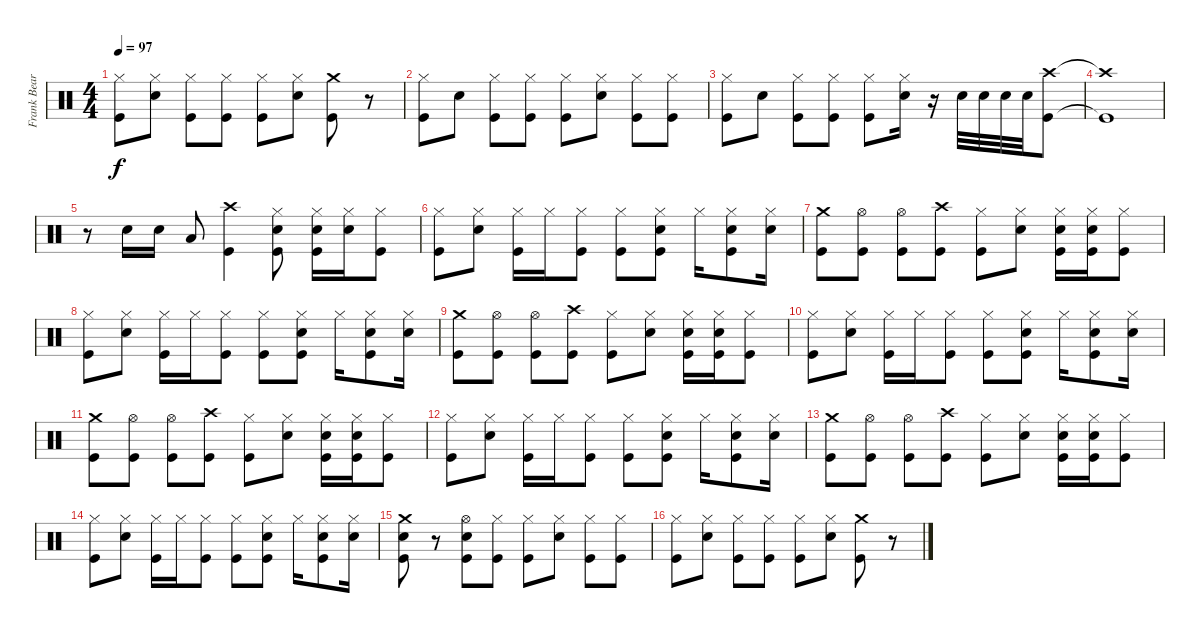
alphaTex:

\track ("Frank Beard Drums" "Frank Bear") {instrument percussion}
\staff {score}
\articulation defaults
\ts (4 4)
\tempo 97
\clef neutral
\ks c
("Hi-Hat (closed)" "Kick (hit)").8{dy f} ("Hi-Hat (closed)" "Snare (hit) 2").8 ("Hi-Hat (closed)" "Kick (hit)").8 ("Hi-Hat (closed)" "Kick (hit)").8 ("Hi-Hat (closed)" "Kick (hit)").8 ("Hi-Hat (closed)" "Snare (hit) 2").8 ("Crash medium (hit)" "Kick (hit)").8 r.8 |
("Hi-Hat (closed)" "Kick (hit)").8 "Snare (hit) 2".8 ("Hi-Hat (closed)" "Kick (hit)").8 ("Hi-Hat (closed)" "Kick (hit)").8 ("Hi-Hat (closed)" "Kick (hit)").8 ("Hi-Hat (closed)" "Snare (hit) 2").8 ("Hi-Hat (closed)" "Kick (hit)").8 ("Hi-Hat (closed)" "Kick (hit)").8 |
("Hi-Hat (closed)" "Kick (hit)").8 "Snare (hit) 2".8 ("Hi-Hat (closed)" "Kick (hit)").8 ("Hi-Hat (closed)" "Kick (hit)").8 ("Hi-Hat (closed)" "Kick (hit)").8 ("Hi-Hat (closed)" "Snare (hit) 2").16 r.16 "Snare (hit) 2".32 "Snare (hit) 2".32 "Snare (hit) 2".32 "Snare (hit) 2".32 ("Crash high (hit)" "Kick (hit)").8 |
("Crash high (hit)"{t} "Kick (hit)"{t}).1 |
r.8 "Snare (hit) 2".16 "Snare (hit) 2".16 "Low Tom (hit)".8 ("Crash high (hit)" "Kick (hit)").4 ("Hi-Hat (closed)" "Snare (hit) 2" "Kick (hit)").8 ("Hi-Hat (closed)" "Snare (hit) 2" "Kick (hit)").16 ("Hi-Hat (closed)" "Snare (hit) 2").16 ("Hi-Hat (closed)" "Kick (hit)").8 |
("Hi-Hat (closed)" "Kick (hit)").8 ("Hi-Hat (closed)" "Snare (hit) 2").8 ("Hi-Hat (closed)" "Kick (hit)").16 "Hi-Hat (closed)".16 ("Hi-Hat (closed)" "Kick (hit)").8 ("Hi-Hat (closed)" "Kick (hit)").8 ("Hi-Hat (closed)" "Snare (hit) 2" "Kick (hit)").8 "Hi-Hat (closed)".16 ("Hi-Hat (closed)" "Snare (hit) 2" "Kick (hit)").8 ("Hi-Hat (closed)" "Snare (hit) 2").16 |
("Crash medium (hit)" "Kick (hit)").8 ("Hi-Hat (open)" "Kick (hit)").8 ("Hi-Hat (open)" "Kick (hit)").8 ("Crash high (hit)" "Kick (hit)").8 ("Hi-Hat (closed)" "Kick (hit)").8 ("Hi-Hat (closed)" "Snare (hit) 2").8 ("Hi-Hat (closed)" "Snare (hit) 2" "Kick (hit)").16 ("Hi-Hat (closed)" "Snare (hit) 2" "Kick (hit)").16 ("Hi-Hat (closed)" "Kick (hit)").8 |
("Hi-Hat (closed)" "Kick (hit)").8 ("Hi-Hat (closed)" "Snare (hit) 2").8 ("Hi-Hat (closed)" "Kick (hit)").16 "Hi-Hat (closed)".16 ("Hi-Hat (closed)" "Kick (hit)").8 ("Hi-Hat (closed)" "Kick (hit)").8 ("Hi-Hat (closed)" "Snare (hit) 2" "Kick (hit)").8 "Hi-Hat (closed)".16 ("Hi-Hat (closed)" "Snare (hit) 2" "Kick (hit)").8 ("Hi-Hat (closed)" "Snare (hit) 2").16 |
("Crash medium (hit)" "Kick (hit)").8 ("Hi-Hat (open)" "Kick (hit)").8 ("Hi-Hat (open)" "Kick (hit)").8 ("Crash high (hit)" "Kick (hit)").8 ("Hi-Hat (closed)" "Kick (hit)").8 ("Hi-Hat (closed)" "Snare (hit) 2").8 ("Hi-Hat (closed)" "Snare (hit) 2" "Kick (hit)").16 ("Hi-Hat (closed)" "Snare (hit) 2" "Kick (hit)").16 ("Hi-Hat (closed)" "Kick (hit)").8 |
("Hi-Hat (closed)" "Kick (hit)").8 ("Hi-Hat (closed)" "Snare (hit) 2").8 ("Hi-Hat (closed)" "Kick (hit)").16 "Hi-Hat (closed)".16 ("Hi-Hat (closed)" "Kick (hit)").8 ("Hi-Hat (closed)" "Kick (hit)").8 ("Hi-Hat (closed)" "Snare (hit) 2" "Kick (hit)").8 "Hi-Hat (closed)".16 ("Hi-Hat (closed)" "Snare (hit) 2" "Kick (hit)").8 ("Hi-Hat (closed)" "Snare (hit) 2").16 |
("Crash medium (hit)" "Kick (hit)").8 ("Hi-Hat (open)" "Kick (hit)").8 ("Hi-Hat (open)" "Kick (hit)").8 ("Crash high (hit)" "Kick (hit)").8 ("Hi-Hat (closed)" "Kick (hit)").8 ("Hi-Hat (closed)" "Snare (hit) 2").8 ("Hi-Hat (closed)" "Snare (hit) 2" "Kick (hit)").16 ("Hi-Hat (closed)" "Snare (hit) 2" "Kick (hit)").16 ("Hi-Hat (closed)" "Kick (hit)").8 |
("Hi-Hat (closed)" "Kick (hit)").8 ("Hi-Hat (closed)" "Snare (hit) 2").8 ("Hi-Hat (closed)" "Kick (hit)").16 "Hi-Hat (closed)".16 ("Hi-Hat (closed)" "Kick (hit)").8 ("Hi-Hat (closed)" "Kick (hit)").8 ("Hi-Hat (closed)" "Snare (hit) 2" "Kick (hit)").8 "Hi-Hat (closed)".16 ("Hi-Hat (closed)" "Snare (hit) 2" "Kick (hit)").8 ("Hi-Hat (closed)" "Snare (hit) 2").16 |
("Crash medium (hit)" "Kick (hit)").8 ("Hi-Hat (open)" "Kick (hit)").8 ("Hi-Hat (open)" "Kick (hit)").8 ("Crash high (hit)" "Kick (hit)").8 ("Hi-Hat (closed)" "Kick (hit)").8 ("Hi-Hat (closed)" "Snare (hit) 2").8 ("Hi-Hat (closed)" "Snare (hit) 2" "Kick (hit)").16 ("Hi-Hat (closed)" "Snare (hit) 2" "Kick (hit)").16 ("Hi-Hat (closed)" "Kick (hit)").8 |
("Hi-Hat (closed)" "Kick (hit)").8 ("Hi-Hat (closed)" "Snare (hit) 2").8 ("Hi-Hat (closed)" "Kick (hit)").16 "Hi-Hat (closed)".16 ("Hi-Hat (closed)" "Kick (hit)").8 ("Hi-Hat (closed)" "Kick (hit)").8 ("Hi-Hat (closed)" "Snare (hit) 2" "Kick (hit)").8 "Hi-Hat (closed)".16 ("Hi-Hat (closed)" "Snare (hit) 2" "Kick (hit)").8 ("Hi-Hat (closed)" "Snare (hit) 2").16 |
("Crash medium (hit)" "Snare (hit) 2" "Kick (hit)").8 r.8 ("Hi-Hat (open)" "Snare (hit) 2" "Kick (hit)").8 ("Hi-Hat (closed)" "Kick (hit)").8 ("Hi-Hat (closed)" "Kick (hit)").8 ("Hi-Hat (closed)" "Snare (hit) 2").8 ("Hi-Hat (closed)" "Kick (hit)").8 ("Hi-Hat (closed)" "Kick (hit)").8 |
("Hi-Hat (closed)" "Kick (hit)").8 ("Hi-Hat (closed)" "Snare (hit) 2").8 ("Hi-Hat (closed)" "Kick (hit)").8 ("Hi-Hat (closed)" "Kick (hit)").8 ("Hi-Hat (closed)" "Kick (hit)").8 ("Hi-Hat (closed)" "Snare (hit) 2").8 ("Crash medium (hit)" "Kick (hit)").8 r.8
